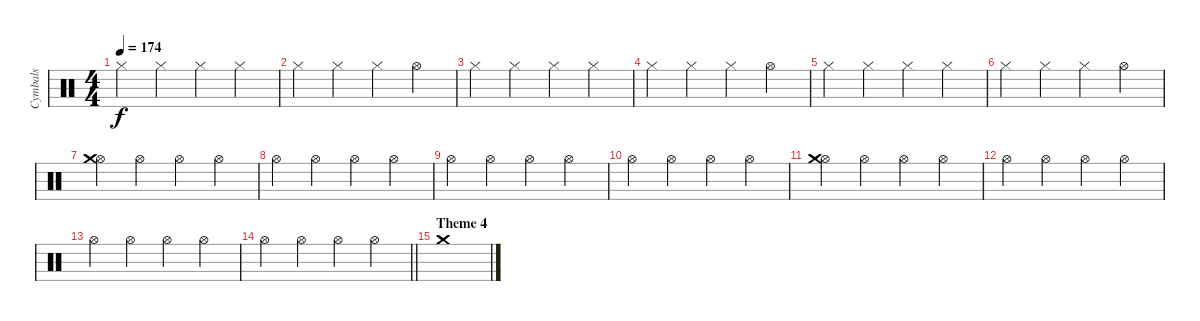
\track ("Cymbals" "Cymbals") {instrument percussion}
\staff {score}
\articulation defaults
\ts (4 4)
\tempo 174
\clef neutral
\ks c "Hi-Hat (closed)".4{dy f} "Hi-Hat (closed)".4 "Hi-Hat (closed)".4 "Hi-Hat (closed)".4
|
"Hi-Hat (closed)".4 "Hi-Hat (closed)".4 "Hi-Hat (closed)".4 "Hi-Hat (open)".4 |
"Hi-Hat (closed)".4 "Hi-Hat (closed)".4 "Hi-Hat (closed)".4 "Hi-Hat (closed)".4 |
"Hi-Hat (closed)".4 "Hi-Hat (closed)".4 "Hi-Hat (closed)".4 "Hi-Hat (open)".4 |
"Hi-Hat (closed)".4 "Hi-Hat (closed)".4 "Hi-Hat (closed)".4 "Hi-Hat (closed)".4 |
"Hi-Hat (closed)".4 "Hi-Hat (closed)".4 "Hi-Hat (closed)".4 "Hi-Hat (open)".4 |
("Hi-Hat (open)" "Crash medium (hit)").4 "Hi-Hat (open)".4 "Hi-Hat (open)".4 "Hi-Hat (open)".4 |
"Hi-Hat (open)".4 "Hi-Hat (open)".4 "Hi-Hat (open)".4 "Hi-Hat (open)".4 |
"Hi-Hat (open)".4 "Hi-Hat (open)".4 "Hi-Hat (open)".4 "Hi-Hat (open)".4 |
"Hi-Hat (open)".4 "Hi-Hat (open)".4 "Hi-Hat (open)".4 "Hi-Hat (open)".4 |
("Hi-Hat (open)" "Crash medium (hit)").4 "Hi-Hat (open)".4 "Hi-Hat (open)".4 "Hi-Hat (open)".4 |
"Hi-Hat (open)".4 "Hi-Hat (open)".4 "Hi-Hat (open)".4 "Hi-Hat (open)".4 |
"Hi-Hat (open)".4 "Hi-Hat (open)".4 "Hi-Hat (open)".4 "Hi-Hat (open)".4 |
\barLineRight lightlight "Hi-Hat (open)".4 "Hi-Hat (open)".4 "Hi-Hat (open)".4 "Hi-Hat (open)".4
|
\section ("" "Theme 4")
"Crash medium (hit)".1
